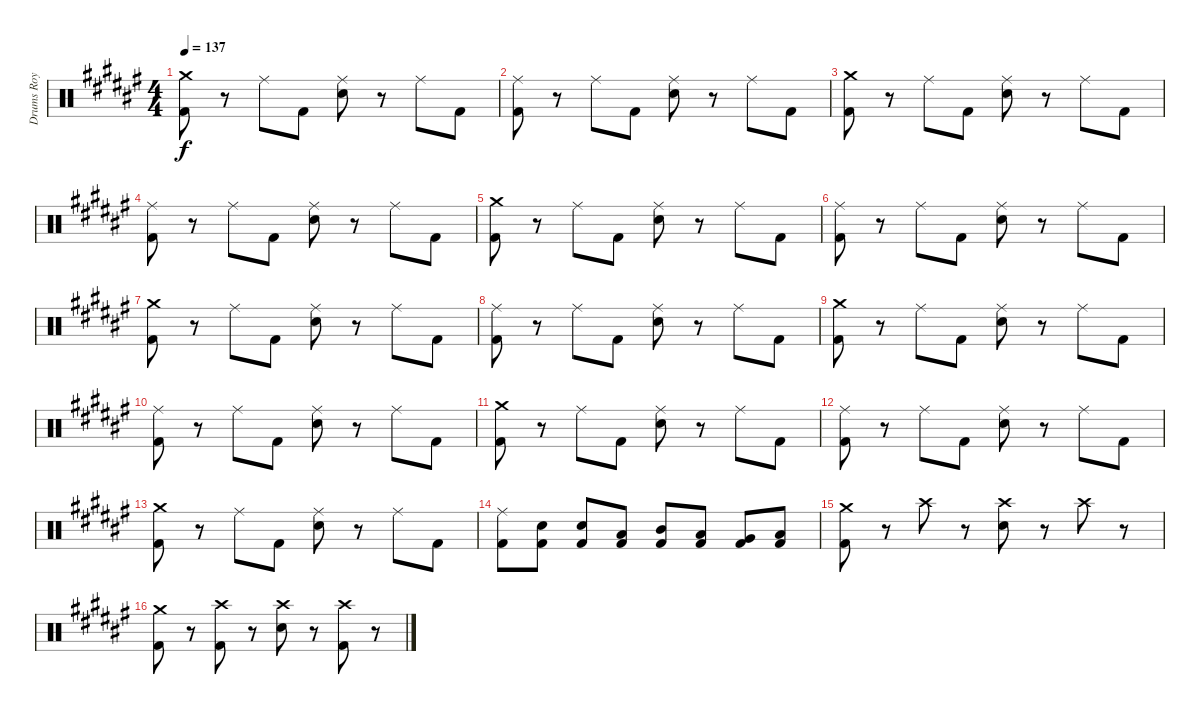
\track ("Drums Roy mayorga" "Drums Roy ") {instrument percussion}
\staff {score}
\articulation defaults
\ts (4 4)
\tempo 137
\clef neutral
\ks d#minor
("Crash medium (hit)" "Kick (hit) 2").8{dy f} r.8 "Ride (middle)".8 "Kick (hit) 2".8 ("Ride (middle)" "Electric Snare (hit)").8 r.8 "Ride (middle)".8 "Kick (hit) 2".8 |
("Ride (middle)" "Kick (hit) 2").8 r.8 "Ride (middle)".8 "Kick (hit) 2".8 ("Ride (middle)" "Electric Snare (hit)").8 r.8 "Ride (middle)".8 "Kick (hit) 2".8 |
("Crash medium (hit)" "Kick (hit) 2").8 r.8 "Ride (middle)".8 "Kick (hit) 2".8 ("Ride (middle)" "Electric Snare (hit)").8 r.8 "Ride (middle)".8 "Kick (hit) 2".8 |
("Ride (middle)" "Kick (hit) 2").8 r.8 "Ride (middle)".8 "Kick (hit) 2".8 ("Ride (middle)" "Electric Snare (hit)").8 r.8 "Ride (middle)".8 "Kick (hit) 2".8 |
("Crash medium (hit)" "Kick (hit) 2").8 r.8 "Ride (middle)".8 "Kick (hit) 2".8 ("Ride (middle)" "Electric Snare (hit)").8 r.8 "Ride (middle)".8 "Kick (hit) 2".8 |
("Ride (middle)" "Kick (hit) 2").8 r.8 "Ride (middle)".8 "Kick (hit) 2".8 ("Ride (middle)" "Electric Snare (hit)").8 r.8 "Ride (middle)".8 "Kick (hit) 2".8 |
("Crash medium (hit)" "Kick (hit) 2").8 r.8 "Ride (middle)".8 "Kick (hit) 2".8 ("Ride (middle)" "Electric Snare (hit)").8 r.8 "Ride (middle)".8 "Kick (hit) 2".8 |
("Ride (middle)" "Kick (hit) 2").8 r.8 "Ride (middle)".8 "Kick (hit) 2".8 ("Ride (middle)" "Electric Snare (hit)").8 r.8 "Ride (middle)".8 "Kick (hit) 2".8 |
("Crash medium (hit)" "Kick (hit) 2").8 r.8 "Ride (middle)".8 "Kick (hit) 2".8 ("Ride (middle)" "Electric Snare (hit)").8 r.8 "Ride (middle)".8 "Kick (hit) 2".8 |
("Ride (middle)" "Kick (hit) 2").8 r.8 "Ride (middle)".8 "Kick (hit) 2".8 ("Ride (middle)" "Electric Snare (hit)").8 r.8 "Ride (middle)".8 "Kick (hit) 2".8 |
("Crash medium (hit)" "Kick (hit) 2").8 r.8 "Ride (middle)".8 "Kick (hit) 2".8 ("Ride (middle)" "Electric Snare (hit)").8 r.8 "Ride (middle)".8 "Kick (hit) 2".8 |
("Ride (middle)" "Kick (hit) 2").8 r.8 "Ride (middle)".8 "Kick (hit) 2".8 ("Ride (middle)" "Electric Snare (hit)").8 r.8 "Ride (middle)".8 "Kick (hit) 2".8 |
("Crash medium (hit)" "Kick (hit) 2").8 r.8 "Ride (middle)".8 "Kick (hit) 2".8 ("Ride (middle)" "Electric Snare (hit)").8 r.8 "Ride (middle)".8 "Kick (hit) 2".8 |
("Ride (middle)" "Kick (hit) 2").8 ("Electric Snare (hit)" "Kick (hit) 2").8 ("Electric Snare (hit)" "Kick (hit) 2").8 ("Low Floor Tom (hit)" "Kick (hit) 2").8 ("Mid Tom (hit)" "Kick (hit) 2").8 ("Low Tom (hit)" "Kick (hit) 2").8 ("Very Low Tom (hit)" "Kick (hit) 2").8 ("Low Floor Tom (hit)" "Kick (hit) 2").8 |
("Crash medium (hit)" "Kick (hit) 2").8 r.8 "Crash high (hit)".8 r.8 ("Crash high (hit)" "Electric Snare (hit)").8 r.8 "Crash high (hit)".8 r.8 |
("Crash medium (hit)" "Kick (hit) 2").8 r.8 ("Crash high (hit)" "Kick (hit) 2").8 r.8 ("Crash high (hit)" "Electric Snare (hit)").8 r.8 ("Crash high (hit)" "Kick (hit) 2").8 r.8
